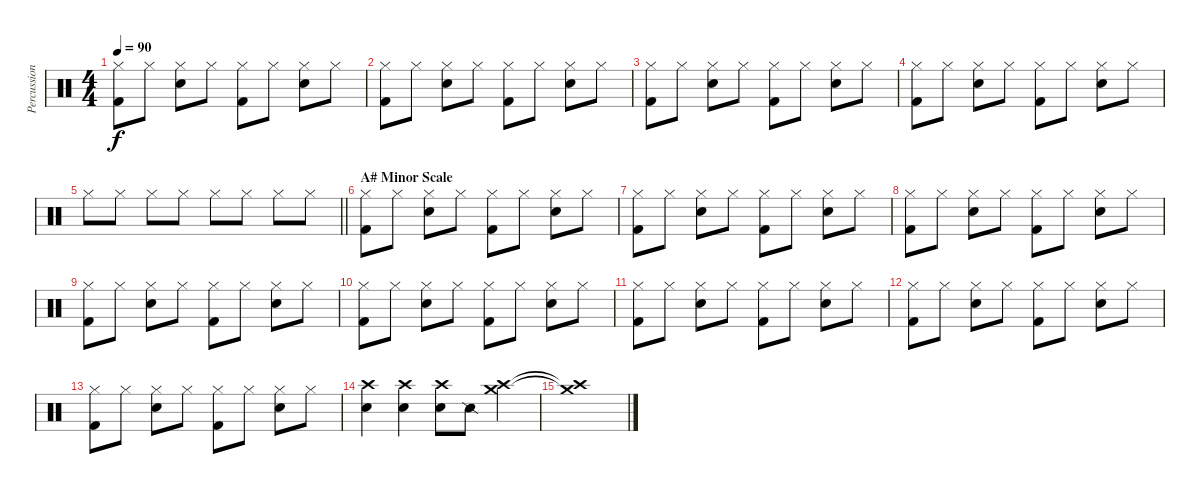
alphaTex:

\track ("Percussion" "Percussion") {instrument percussion}
\staff {score}
\articulation defaults
\ts (4 4)
\tempo 90
\clef neutral
\ks c
("Kick (hit) 2" "Hi-Hat (closed)").8{dy f} "Hi-Hat (closed)".8 ("Snare (hit) 2" "Hi-Hat (closed)").8 "Hi-Hat (closed)".8 ("Kick (hit) 2" "Hi-Hat (closed)").8 "Hi-Hat (closed)".8 ("Snare (hit) 2" "Hi-Hat (closed)").8 "Hi-Hat (closed)".8 |
("Kick (hit) 2" "Hi-Hat (closed)").8 "Hi-Hat (closed)".8 ("Snare (hit) 2" "Hi-Hat (closed)").8 "Hi-Hat (closed)".8 ("Kick (hit) 2" "Hi-Hat (closed)").8 "Hi-Hat (closed)".8 ("Snare (hit) 2" "Hi-Hat (closed)").8 "Hi-Hat (closed)".8 |
("Kick (hit) 2" "Hi-Hat (closed)").8 "Hi-Hat (closed)".8 ("Snare (hit) 2" "Hi-Hat (closed)").8 "Hi-Hat (closed)".8 ("Kick (hit) 2" "Hi-Hat (closed)").8 "Hi-Hat (closed)".8 ("Snare (hit) 2" "Hi-Hat (closed)").8 "Hi-Hat (closed)".8 |
("Kick (hit) 2" "Hi-Hat (closed)").8 "Hi-Hat (closed)".8 ("Snare (hit) 2" "Hi-Hat (closed)").8 "Hi-Hat (closed)".8 ("Kick (hit) 2" "Hi-Hat (closed)").8 "Hi-Hat (closed)".8 ("Snare (hit) 2" "Hi-Hat (closed)").8 "Hi-Hat (closed)".8 |
\barLineRight lightlight "Hi-Hat (closed)".8 "Hi-Hat (closed)".8 "Hi-Hat (closed)".8 "Hi-Hat (closed)".8 "Hi-Hat (closed)".8 "Hi-Hat (closed)".8 "Hi-Hat (closed)".8 "Hi-Hat (closed)".8
|
\section ("" "A# Minor Scale")
("Kick (hit) 2" "Hi-Hat (closed)").8 "Hi-Hat (closed)".8 ("Snare (hit) 2" "Hi-Hat (closed)").8 "Hi-Hat (closed)".8 ("Kick (hit) 2" "Hi-Hat (closed)").8 "Hi-Hat (closed)".8 ("Snare (hit) 2" "Hi-Hat (closed)").8 "Hi-Hat (closed)".8 |
("Kick (hit) 2" "Hi-Hat (closed)").8 "Hi-Hat (closed)".8 ("Snare (hit) 2" "Hi-Hat (closed)").8 "Hi-Hat (closed)".8 ("Kick (hit) 2" "Hi-Hat (closed)").8 "Hi-Hat (closed)".8 ("Snare (hit) 2" "Hi-Hat (closed)").8 "Hi-Hat (closed)".8 |
("Kick (hit) 2" "Hi-Hat (closed)").8 "Hi-Hat (closed)".8 ("Snare (hit) 2" "Hi-Hat (closed)").8 "Hi-Hat (closed)".8 ("Kick (hit) 2" "Hi-Hat (closed)").8 "Hi-Hat (closed)".8 ("Snare (hit) 2" "Hi-Hat (closed)").8 "Hi-Hat (closed)".8 |
("Kick (hit) 2" "Hi-Hat (closed)").8 "Hi-Hat (closed)".8 ("Snare (hit) 2" "Hi-Hat (closed)").8 "Hi-Hat (closed)".8 ("Kick (hit) 2" "Hi-Hat (closed)").8 "Hi-Hat (closed)".8 ("Snare (hit) 2" "Hi-Hat (closed)").8 "Hi-Hat (closed)".8 |
("Kick (hit) 2" "Hi-Hat (closed)").8 "Hi-Hat (closed)".8 ("Snare (hit) 2" "Hi-Hat (closed)").8 "Hi-Hat (closed)".8 ("Kick (hit) 2" "Hi-Hat (closed)").8 "Hi-Hat (closed)".8 ("Snare (hit) 2" "Hi-Hat (closed)").8 "Hi-Hat (closed)".8 |
("Kick (hit) 2" "Hi-Hat (closed)").8 "Hi-Hat (closed)".8 ("Snare (hit) 2" "Hi-Hat (closed)").8 "Hi-Hat (closed)".8 ("Kick (hit) 2" "Hi-Hat (closed)").8 "Hi-Hat (closed)".8 ("Snare (hit) 2" "Hi-Hat (closed)").8 "Hi-Hat (closed)".8 |
("Kick (hit) 2" "Hi-Hat (closed)").8 "Hi-Hat (closed)".8 ("Snare (hit) 2" "Hi-Hat (closed)").8 "Hi-Hat (closed)".8 ("Kick (hit) 2" "Hi-Hat (closed)").8 "Hi-Hat (closed)".8 ("Snare (hit) 2" "Hi-Hat (closed)").8 "Hi-Hat (closed)".8 |
("Kick (hit) 2" "Hi-Hat (closed)").8 "Hi-Hat (closed)".8 ("Snare (hit) 2" "Hi-Hat (closed)").8 "Hi-Hat (closed)".8 ("Kick (hit) 2" "Hi-Hat (closed)").8 "Hi-Hat (closed)".8 ("Snare (hit) 2" "Hi-Hat (closed)").8 "Hi-Hat (closed)".8 |
("Crash high (hit)" "Snare (hit) 2").4 ("Crash high (hit)" "Snare (hit) 2").4 ("Crash high (hit)" "Snare (hit) 2").8 "Snare (side stick) 2".8 ("Crash high (hit)" "Crash medium (hit)").4 |
("Crash high (hit)"{t} "Crash medium (hit)"{t}).1
